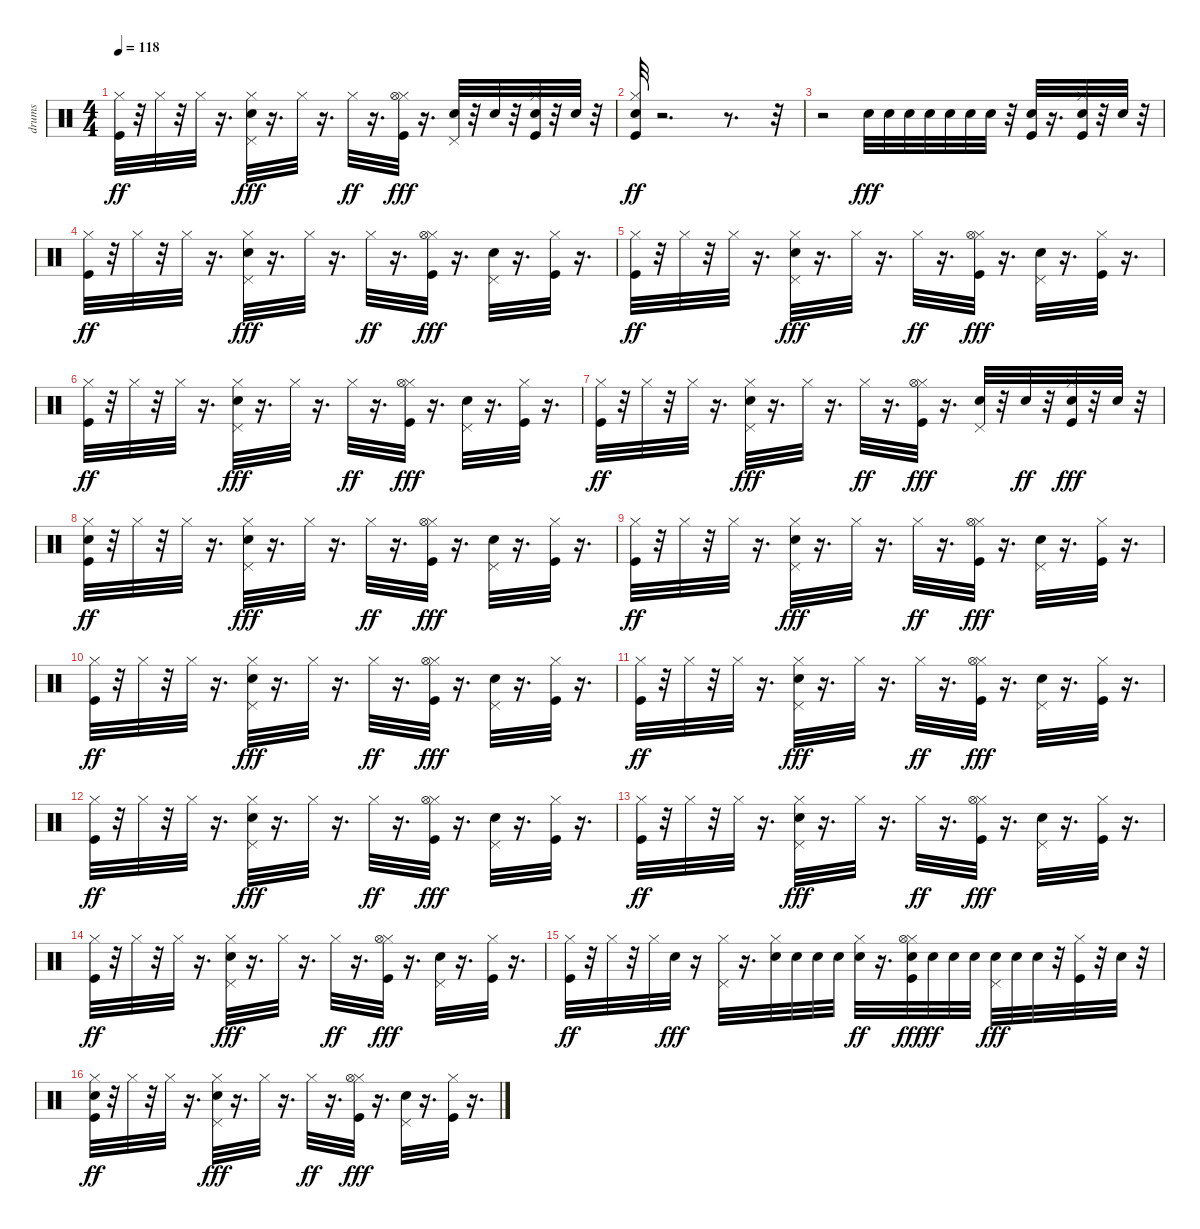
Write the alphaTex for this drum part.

\track ("drums   " "drums   ") {instrument percussion}
\staff {score}
\articulation defaults
\ts (4 4)
\tempo 118
\clef neutral
\ks c
("Kick (hit)" "Hi-Hat (closed)").32{dy ff} r.32 "Hi-Hat (closed)".32 r.32 "Hi-Hat (closed)".32 r.16{d} ("Electric Snare (hit)" "Hi-Hat (closed)" "Pedal Hi-Hat (hit)").32{dy fff} r.16{d} "Hi-Hat (closed)".32 r.16{d} "Hi-Hat (closed)".32{dy ff} r.16{d} ("Kick (hit)" "Hi-Hat (closed)" "Hi-Hat (open)").32{dy fff} r.16{d} ("Electric Snare (hit)" "Pedal Hi-Hat (hit)").32 r.32 "Electric Snare (hit)".32 r.32 ("Kick (hit)" "Electric Snare (hit)" "Hi-Hat (closed)").32 r.32 "Electric Snare (hit)".32 r.32 |
("Kick (hit)" "Electric Snare (hit)" "Hi-Hat (closed)").32{dy ff} r.2{d} r.8{d} r.32 |
r.2 "Electric Snare (hit)".32{dy fff} "Electric Snare (hit)".32 "Electric Snare (hit)".32 "Electric Snare (hit)".32 "Electric Snare (hit)".32 "Electric Snare (hit)".32 "Electric Snare (hit)".32 r.32 ("Kick (hit)" "Electric Snare (hit)").32 r.16{d} ("Kick (hit)" "Electric Snare (hit)" "Hi-Hat (closed)").32 r.32 "Electric Snare (hit)".32 r.32 |
("Kick (hit)" "Hi-Hat (closed)").32{dy ff} r.32 "Hi-Hat (closed)".32 r.32 "Hi-Hat (closed)".32 r.16{d} ("Electric Snare (hit)" "Hi-Hat (closed)" "Pedal Hi-Hat (hit)").32{dy fff} r.16{d} "Hi-Hat (closed)".32 r.16{d} "Hi-Hat (closed)".32{dy ff} r.16{d} ("Kick (hit)" "Hi-Hat (closed)" "Hi-Hat (open)").32{dy fff} r.16{d} ("Electric Snare (hit)" "Pedal Hi-Hat (hit)").32 r.16{d} ("Kick (hit)" "Hi-Hat (closed)").32 r.16{d} |
("Kick (hit)" "Hi-Hat (closed)").32{dy ff} r.32 "Hi-Hat (closed)".32 r.32 "Hi-Hat (closed)".32 r.16{d} ("Electric Snare (hit)" "Hi-Hat (closed)" "Pedal Hi-Hat (hit)").32{dy fff} r.16{d} "Hi-Hat (closed)".32 r.16{d} "Hi-Hat (closed)".32{dy ff} r.16{d} ("Kick (hit)" "Hi-Hat (closed)" "Hi-Hat (open)").32{dy fff} r.16{d} ("Electric Snare (hit)" "Pedal Hi-Hat (hit)").32 r.16{d} ("Kick (hit)" "Hi-Hat (closed)").32 r.16{d} |
("Kick (hit)" "Hi-Hat (closed)").32{dy ff} r.32 "Hi-Hat (closed)".32 r.32 "Hi-Hat (closed)".32 r.16{d} ("Electric Snare (hit)" "Hi-Hat (closed)" "Pedal Hi-Hat (hit)").32{dy fff} r.16{d} "Hi-Hat (closed)".32 r.16{d} "Hi-Hat (closed)".32{dy ff} r.16{d} ("Kick (hit)" "Hi-Hat (closed)" "Hi-Hat (open)").32{dy fff} r.16{d} ("Electric Snare (hit)" "Pedal Hi-Hat (hit)").32 r.16{d} ("Kick (hit)" "Hi-Hat (closed)").32 r.16{d} |
("Kick (hit)" "Hi-Hat (closed)").32{dy ff} r.32 "Hi-Hat (closed)".32 r.32 "Hi-Hat (closed)".32 r.16{d} ("Electric Snare (hit)" "Hi-Hat (closed)" "Pedal Hi-Hat (hit)").32{dy fff} r.16{d} "Hi-Hat (closed)".32 r.16{d} "Hi-Hat (closed)".32{dy ff} r.16{d} ("Kick (hit)" "Hi-Hat (closed)" "Hi-Hat (open)").32{dy fff} r.16{d} ("Electric Snare (hit)" "Pedal Hi-Hat (hit)").32 r.32 "Electric Snare (hit)".32{dy ff} r.32 ("Kick (hit)" "Electric Snare (hit)" "Hi-Hat (closed)").32{dy fff} r.32 "Electric Snare (hit)".32 r.32 |
("Kick (hit)" "Electric Snare (hit)" "Hi-Hat (closed)").32{dy ff} r.32 "Hi-Hat (closed)".32 r.32 "Hi-Hat (closed)".32 r.16{d} ("Electric Snare (hit)" "Hi-Hat (closed)" "Pedal Hi-Hat (hit)").32{dy fff} r.16{d} "Hi-Hat (closed)".32 r.16{d} "Hi-Hat (closed)".32{dy ff} r.16{d} ("Kick (hit)" "Hi-Hat (closed)" "Hi-Hat (open)").32{dy fff} r.16{d} ("Electric Snare (hit)" "Pedal Hi-Hat (hit)").32 r.16{d} ("Kick (hit)" "Hi-Hat (closed)").32 r.16{d} |
("Kick (hit)" "Hi-Hat (closed)").32{dy ff} r.32 "Hi-Hat (closed)".32 r.32 "Hi-Hat (closed)".32 r.16{d} ("Electric Snare (hit)" "Hi-Hat (closed)" "Pedal Hi-Hat (hit)").32{dy fff} r.16{d} "Hi-Hat (closed)".32 r.16{d} "Hi-Hat (closed)".32{dy ff} r.16{d} ("Kick (hit)" "Hi-Hat (closed)" "Hi-Hat (open)").32{dy fff} r.16{d} ("Electric Snare (hit)" "Pedal Hi-Hat (hit)").32 r.16{d} ("Kick (hit)" "Hi-Hat (closed)").32 r.16{d} |
("Kick (hit)" "Hi-Hat (closed)").32{dy ff} r.32 "Hi-Hat (closed)".32 r.32 "Hi-Hat (closed)".32 r.16{d} ("Electric Snare (hit)" "Hi-Hat (closed)" "Pedal Hi-Hat (hit)").32{dy fff} r.16{d} "Hi-Hat (closed)".32 r.16{d} "Hi-Hat (closed)".32{dy ff} r.16{d} ("Kick (hit)" "Hi-Hat (closed)" "Hi-Hat (open)").32{dy fff} r.16{d} ("Electric Snare (hit)" "Pedal Hi-Hat (hit)").32 r.16{d} ("Kick (hit)" "Hi-Hat (closed)").32 r.16{d} |
("Kick (hit)" "Hi-Hat (closed)").32{dy ff} r.32 "Hi-Hat (closed)".32 r.32 "Hi-Hat (closed)".32 r.16{d} ("Electric Snare (hit)" "Hi-Hat (closed)" "Pedal Hi-Hat (hit)").32{dy fff} r.16{d} "Hi-Hat (closed)".32 r.16{d} "Hi-Hat (closed)".32{dy ff} r.16{d} ("Kick (hit)" "Hi-Hat (closed)" "Hi-Hat (open)").32{dy fff} r.16{d} ("Electric Snare (hit)" "Pedal Hi-Hat (hit)").32 r.16{d} ("Kick (hit)" "Hi-Hat (closed)").32 r.16{d} |
("Kick (hit)" "Hi-Hat (closed)").32{dy ff} r.32 "Hi-Hat (closed)".32 r.32 "Hi-Hat (closed)".32 r.16{d} ("Electric Snare (hit)" "Hi-Hat (closed)" "Pedal Hi-Hat (hit)").32{dy fff} r.16{d} "Hi-Hat (closed)".32 r.16{d} "Hi-Hat (closed)".32{dy ff} r.16{d} ("Kick (hit)" "Hi-Hat (closed)" "Hi-Hat (open)").32{dy fff} r.16{d} ("Electric Snare (hit)" "Pedal Hi-Hat (hit)").32 r.16{d} ("Kick (hit)" "Hi-Hat (closed)").32 r.16{d} |
("Kick (hit)" "Hi-Hat (closed)").32{dy ff} r.32 "Hi-Hat (closed)".32 r.32 "Hi-Hat (closed)".32 r.16{d} ("Electric Snare (hit)" "Hi-Hat (closed)" "Pedal Hi-Hat (hit)").32{dy fff} r.16{d} "Hi-Hat (closed)".32 r.16{d} "Hi-Hat (closed)".32{dy ff} r.16{d} ("Kick (hit)" "Hi-Hat (closed)" "Hi-Hat (open)").32{dy fff} r.16{d} ("Electric Snare (hit)" "Pedal Hi-Hat (hit)").32 r.16{d} ("Kick (hit)" "Hi-Hat (closed)").32 r.16{d} |
("Kick (hit)" "Hi-Hat (closed)").32{dy ff} r.32 "Hi-Hat (closed)".32 r.32 "Hi-Hat (closed)".32 r.16{d} ("Electric Snare (hit)" "Hi-Hat (closed)" "Pedal Hi-Hat (hit)").32{dy fff} r.16{d} "Hi-Hat (closed)".32 r.16{d} "Hi-Hat (closed)".32{dy ff} r.16{d} ("Kick (hit)" "Hi-Hat (closed)" "Hi-Hat (open)").32{dy fff} r.16{d} ("Electric Snare (hit)" "Pedal Hi-Hat (hit)").32 r.16{d} ("Kick (hit)" "Hi-Hat (closed)").32 r.16{d} |
("Kick (hit)" "Hi-Hat (closed)").32{dy ff} r.32 "Hi-Hat (closed)".32 r.32 "Hi-Hat (closed)".32 "Electric Snare (hit)".32{dy fff} r.16 ("Hi-Hat (closed)" "Pedal Hi-Hat (hit)").32 r.16{d} ("Electric Snare (hit)" "Hi-Hat (closed)").32 "Electric Snare (hit)".32 "Electric Snare (hit)".32 "Electric Snare (hit)".32 ("Electric Snare (hit)" "Hi-Hat (closed)").32{dy ff} r.16{d} ("Kick (hit)" "Electric Snare (hit)" "Hi-Hat (closed)" "Hi-Hat (open)").32{dy fff} "Electric Snare (hit)".32{dy ff} "Electric Snare (hit)".32 "Electric Snare (hit)".32 ("Electric Snare (hit)" "Pedal Hi-Hat (hit)").32{dy fff} "Electric Snare (hit)".32 "Electric Snare (hit)".32 r.32 ("Kick (hit)" "Hi-Hat (closed)").32 r.32 "Electric Snare (hit)".32 r.32 |
("Kick (hit)" "Electric Snare (hit)" "Hi-Hat (closed)").32{dy ff} r.32 "Hi-Hat (closed)".32 r.32 "Hi-Hat (closed)".32 r.16{d} ("Electric Snare (hit)" "Hi-Hat (closed)" "Pedal Hi-Hat (hit)").32{dy fff} r.16{d} "Hi-Hat (closed)".32 r.16{d} "Hi-Hat (closed)".32{dy ff} r.16{d} ("Kick (hit)" "Hi-Hat (closed)" "Hi-Hat (open)").32{dy fff} r.16{d} ("Electric Snare (hit)" "Pedal Hi-Hat (hit)").32 r.16{d} ("Kick (hit)" "Hi-Hat (closed)").32 r.16{d}
